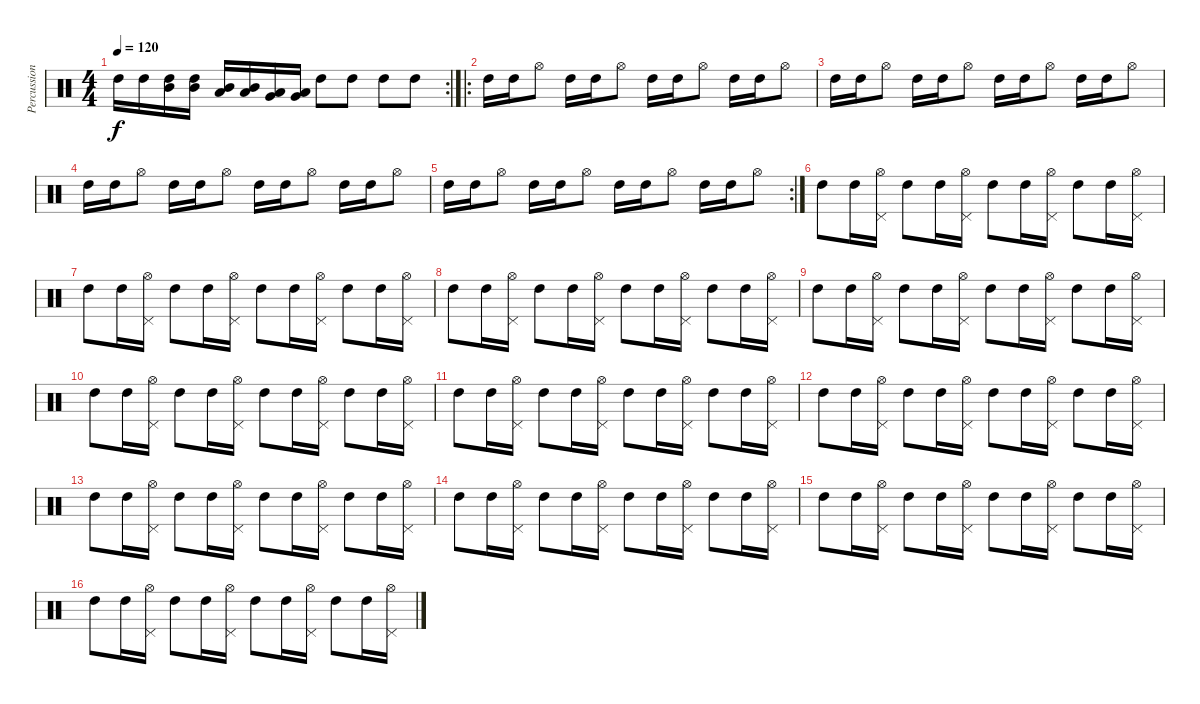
\track ("Percussions" "Percussion") {instrument percussion}
\staff {score}
\articulation defaults
\rc 2
\ts (4 4)
\tempo 120
\clef neutral
\ks c "High Tom (hit)".16{dy f} "High Tom (hit)".16
("Mid Tom (hit)" "High Tom (hit)").16 ("Mid Tom (hit)" "High Tom (hit)").16 ("Low Tom (hit)" "Mid Tom (hit)").16 ("Low Tom (hit)" "Mid Tom (hit)").16 ("Very Low Tom (hit)" "Low Tom (hit)").16 ("Very Low Tom (hit)" "Low Tom (hit)").16 "High Tom (hit)".8 "High Tom (hit)".8 "High Tom (hit)".8 "High Tom (hit)".8 |
\ro "High Tom (hit)".16 "High Tom (hit)".16 "Hi-Hat (open)".8 "High Tom (hit)".16 "High Tom (hit)".16 "Hi-Hat (open)".8 "High Tom (hit)".16 "High Tom (hit)".16 "Hi-Hat (open)".8 "High Tom (hit)".16 "High Tom (hit)".16 "Hi-Hat (open)".8
|
"High Tom (hit)".16 "High Tom (hit)".16 "Hi-Hat (open)".8 "High Tom (hit)".16 "High Tom (hit)".16 "Hi-Hat (open)".8 "High Tom (hit)".16 "High Tom (hit)".16 "Hi-Hat (open)".8 "High Tom (hit)".16 "High Tom (hit)".16 "Hi-Hat (open)".8 |
"High Tom (hit)".16 "High Tom (hit)".16 "Hi-Hat (open)".8 "High Tom (hit)".16 "High Tom (hit)".16 "Hi-Hat (open)".8 "High Tom (hit)".16 "High Tom (hit)".16 "Hi-Hat (open)".8 "High Tom (hit)".16 "High Tom (hit)".16 "Hi-Hat (open)".8 |
\rc 2 "High Tom (hit)".16 "High Tom (hit)".16 "Hi-Hat (open)".8 "High Tom (hit)".16 "High Tom (hit)".16 "Hi-Hat (open)".8 "High Tom (hit)".16 "High Tom (hit)".16 "Hi-Hat (open)".8 "High Tom (hit)".16 "High Tom (hit)".16 "Hi-Hat (open)".8
|
"High Tom (hit)".8 "High Tom (hit)".16 ("Pedal Hi-Hat (hit)" "Hi-Hat (open)").16 "High Tom (hit)".8 "High Tom (hit)".16 ("Pedal Hi-Hat (hit)" "Hi-Hat (open)").16 "High Tom (hit)".8 "High Tom (hit)".16 ("Pedal Hi-Hat (hit)" "Hi-Hat (open)").16 "High Tom (hit)".8 "High Tom (hit)".16 ("Pedal Hi-Hat (hit)" "Hi-Hat (open)").16 |
"High Tom (hit)".8 "High Tom (hit)".16 ("Pedal Hi-Hat (hit)" "Hi-Hat (open)").16 "High Tom (hit)".8 "High Tom (hit)".16 ("Pedal Hi-Hat (hit)" "Hi-Hat (open)").16 "High Tom (hit)".8 "High Tom (hit)".16 ("Pedal Hi-Hat (hit)" "Hi-Hat (open)").16 "High Tom (hit)".8 "High Tom (hit)".16 ("Pedal Hi-Hat (hit)" "Hi-Hat (open)").16 |
"High Tom (hit)".8 "High Tom (hit)".16 ("Pedal Hi-Hat (hit)" "Hi-Hat (open)").16 "High Tom (hit)".8 "High Tom (hit)".16 ("Pedal Hi-Hat (hit)" "Hi-Hat (open)").16 "High Tom (hit)".8 "High Tom (hit)".16 ("Pedal Hi-Hat (hit)" "Hi-Hat (open)").16 "High Tom (hit)".8 "High Tom (hit)".16 ("Pedal Hi-Hat (hit)" "Hi-Hat (open)").16 |
"High Tom (hit)".8 "High Tom (hit)".16 ("Pedal Hi-Hat (hit)" "Hi-Hat (open)").16 "High Tom (hit)".8 "High Tom (hit)".16 ("Pedal Hi-Hat (hit)" "Hi-Hat (open)").16 "High Tom (hit)".8 "High Tom (hit)".16 ("Pedal Hi-Hat (hit)" "Hi-Hat (open)").16 "High Tom (hit)".8 "High Tom (hit)".16 ("Pedal Hi-Hat (hit)" "Hi-Hat (open)").16 |
"High Tom (hit)".8 "High Tom (hit)".16 ("Pedal Hi-Hat (hit)" "Hi-Hat (open)").16 "High Tom (hit)".8 "High Tom (hit)".16 ("Pedal Hi-Hat (hit)" "Hi-Hat (open)").16 "High Tom (hit)".8 "High Tom (hit)".16 ("Pedal Hi-Hat (hit)" "Hi-Hat (open)").16 "High Tom (hit)".8 "High Tom (hit)".16 ("Pedal Hi-Hat (hit)" "Hi-Hat (open)").16 |
"High Tom (hit)".8 "High Tom (hit)".16 ("Pedal Hi-Hat (hit)" "Hi-Hat (open)").16 "High Tom (hit)".8 "High Tom (hit)".16 ("Pedal Hi-Hat (hit)" "Hi-Hat (open)").16 "High Tom (hit)".8 "High Tom (hit)".16 ("Pedal Hi-Hat (hit)" "Hi-Hat (open)").16 "High Tom (hit)".8 "High Tom (hit)".16 ("Pedal Hi-Hat (hit)" "Hi-Hat (open)").16 |
"High Tom (hit)".8 "High Tom (hit)".16 ("Pedal Hi-Hat (hit)" "Hi-Hat (open)").16 "High Tom (hit)".8 "High Tom (hit)".16 ("Pedal Hi-Hat (hit)" "Hi-Hat (open)").16 "High Tom (hit)".8 "High Tom (hit)".16 ("Pedal Hi-Hat (hit)" "Hi-Hat (open)").16 "High Tom (hit)".8 "High Tom (hit)".16 ("Pedal Hi-Hat (hit)" "Hi-Hat (open)").16 |
"High Tom (hit)".8 "High Tom (hit)".16 ("Pedal Hi-Hat (hit)" "Hi-Hat (open)").16 "High Tom (hit)".8 "High Tom (hit)".16 ("Pedal Hi-Hat (hit)" "Hi-Hat (open)").16 "High Tom (hit)".8 "High Tom (hit)".16 ("Pedal Hi-Hat (hit)" "Hi-Hat (open)").16 "High Tom (hit)".8 "High Tom (hit)".16 ("Pedal Hi-Hat (hit)" "Hi-Hat (open)").16 |
"High Tom (hit)".8 "High Tom (hit)".16 ("Pedal Hi-Hat (hit)" "Hi-Hat (open)").16 "High Tom (hit)".8 "High Tom (hit)".16 ("Pedal Hi-Hat (hit)" "Hi-Hat (open)").16 "High Tom (hit)".8 "High Tom (hit)".16 ("Pedal Hi-Hat (hit)" "Hi-Hat (open)").16 "High Tom (hit)".8 "High Tom (hit)".16 ("Pedal Hi-Hat (hit)" "Hi-Hat (open)").16 |
"High Tom (hit)".8 "High Tom (hit)".16 ("Pedal Hi-Hat (hit)" "Hi-Hat (open)").16 "High Tom (hit)".8 "High Tom (hit)".16 ("Pedal Hi-Hat (hit)" "Hi-Hat (open)").16 "High Tom (hit)".8 "High Tom (hit)".16 ("Pedal Hi-Hat (hit)" "Hi-Hat (open)").16 "High Tom (hit)".8 "High Tom (hit)".16 ("Pedal Hi-Hat (hit)" "Hi-Hat (open)").16 |
"High Tom (hit)".8 "High Tom (hit)".16 ("Pedal Hi-Hat (hit)" "Hi-Hat (open)").16 "High Tom (hit)".8 "High Tom (hit)".16 ("Pedal Hi-Hat (hit)" "Hi-Hat (open)").16 "High Tom (hit)".8 "High Tom (hit)".16 ("Pedal Hi-Hat (hit)" "Hi-Hat (open)").16 "High Tom (hit)".8 "High Tom (hit)".16 ("Pedal Hi-Hat (hit)" "Hi-Hat (open)").16
